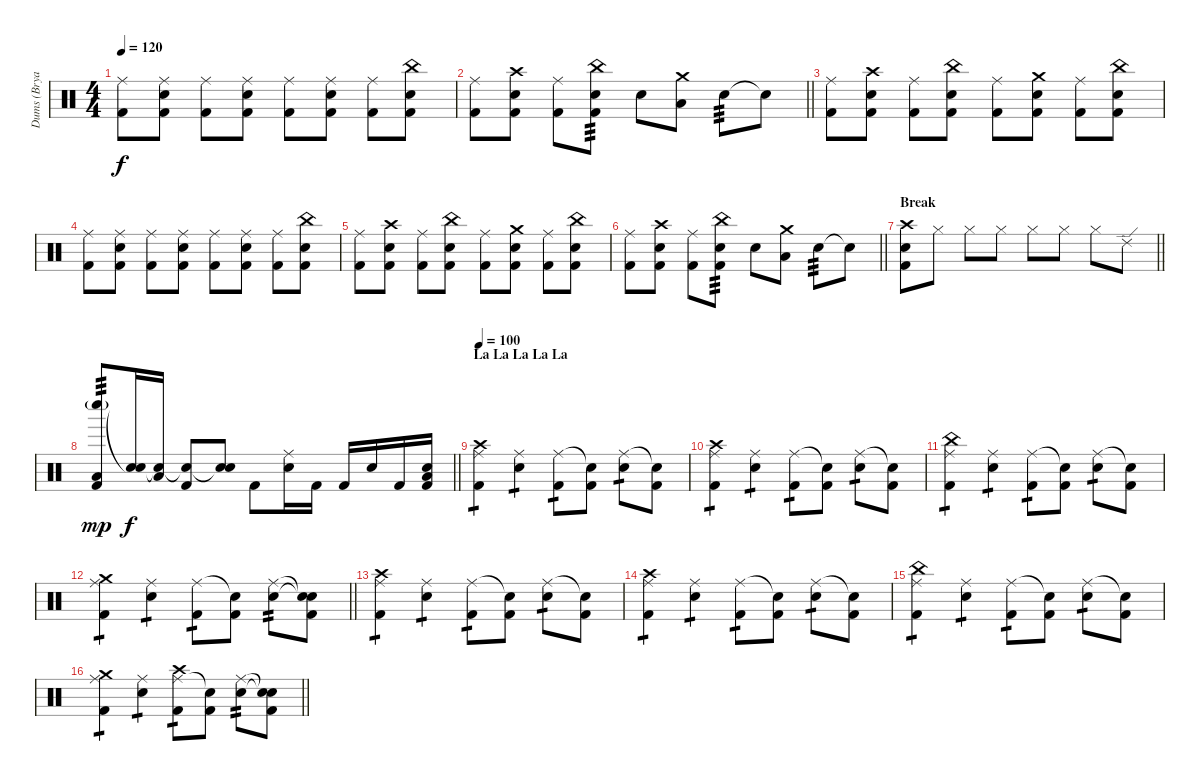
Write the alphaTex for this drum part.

\track ("Dums (Bryar)" "Dums (Brya") {instrument percussion}
\staff {score}
\articulation defaults
\ts (4 4)
\tempo 120
\clef neutral
\ks c
("Ride (middle)" "Kick (hit) 2").8{dy f} ("Ride (middle)" "Electric Snare (hit)" "Kick (hit) 2").8 ("Ride (middle)" "Kick (hit) 2").8 ("Ride (middle)" "Electric Snare (hit)" "Kick (hit) 2").8 ("Ride (middle)" "Kick (hit) 2").8 ("Ride (middle)" "Electric Snare (hit)" "Kick (hit) 2").8 ("Ride (middle)" "Kick (hit) 2").8 ("China (hit)" "Electric Snare (hit)" "Kick (hit) 2").8 |
\barLineRight lightlight
("Ride (middle)" "Kick (hit) 2").8 ("Crash high (hit)" "Electric Snare (hit)" "Kick (hit) 2").8 ("Ride (middle)" "Kick (hit) 2").8 ("China (hit)" "Electric Snare (hit)" "Kick (hit) 2").8{tp 3} "Electric Snare (hit)".8 ("Crash medium (hit)" "Low Tom (hit)").8 "Electric Snare (hit)".8{tp 3} "Electric Snare (hit)"{t}.8 |
("Ride (middle)" "Kick (hit) 2").8 ("Crash high (hit)" "Electric Snare (hit)" "Kick (hit) 2").8 ("Ride (middle)" "Kick (hit) 2").8 ("China (hit)" "Electric Snare (hit)" "Kick (hit) 2").8 ("Ride (middle)" "Kick (hit) 2").8 ("Crash medium (hit)" "Electric Snare (hit)" "Kick (hit) 2").8 ("Ride (middle)" "Kick (hit) 2").8 ("China (hit)" "Electric Snare (hit)" "Kick (hit) 2").8 |
("Ride (middle)" "Kick (hit) 2").8 ("Ride (middle)" "Electric Snare (hit)" "Kick (hit) 2").8 ("Ride (middle)" "Kick (hit) 2").8 ("Ride (middle)" "Electric Snare (hit)" "Kick (hit) 2").8 ("Ride (middle)" "Kick (hit) 2").8 ("Ride (middle)" "Electric Snare (hit)" "Kick (hit) 2").8 ("Ride (middle)" "Kick (hit) 2").8 ("China (hit)" "Electric Snare (hit)" "Kick (hit) 2").8 |
("Ride (middle)" "Kick (hit) 2").8 ("Crash high (hit)" "Electric Snare (hit)" "Kick (hit) 2").8 ("Ride (middle)" "Kick (hit) 2").8 ("China (hit)" "Electric Snare (hit)" "Kick (hit) 2").8 ("Ride (middle)" "Kick (hit) 2").8 ("Crash medium (hit)" "Electric Snare (hit)" "Kick (hit) 2").8 ("Ride (middle)" "Kick (hit) 2").8 ("China (hit)" "Electric Snare (hit)" "Kick (hit) 2").8 |
\barLineRight lightlight
("Ride (middle)" "Kick (hit) 2").8 ("Crash high (hit)" "Electric Snare (hit)" "Kick (hit) 2").8 ("Ride (middle)" "Kick (hit) 2").8 ("China (hit)" "Electric Snare (hit)" "Kick (hit) 2").8{tp 3} "Electric Snare (hit)".8 ("Crash medium (hit)" "Low Tom (hit)").8 "Electric Snare (hit)".8{tp 3} "Electric Snare (hit)"{t}.8 |
\section ("" "Break")
\barLineRight lightlight
("Crash high (hit)" "Electric Snare (hit)" "Kick (hit) 2").8 "Hi-Hat (closed)".8 "Hi-Hat (closed)".8 "Hi-Hat (closed)".8 "Hi-Hat (closed)".8 "Hi-Hat (closed)".8 "Hi-Hat (closed)".8 "Ride (edge) 2".8 |
\section ("" "")
\barLineRight lightlight
("Whistle low (hit)"{g} "Low Floor Tom (hit)" "Kick (hit) 2").8{tp 3 dy mp} ("Snare (hit)"{t} "Electric Snare (hit)").16{dy f} ("Snare (hit)"{t} "Low Tom (hit)").16 ("Snare (hit)"{t} "Kick (hit) 2").8 ("Snare (hit)"{t} "Electric Snare (hit)").8 "Kick (hit) 2".8 ("Ride (middle)" "Electric Snare (hit)").16 "Kick (hit) 2".16 "Kick (hit) 2".16 "Electric Snare (hit)".16 "Kick (hit) 2".16 ("Electric Snare (hit)" "Low Tom (hit)" "Kick (hit) 2").16 |
\section ("" "La La La La La")
\tempo 100
("Ride (middle)" "Crash high (hit)" "Kick (hit) 2").4{tp 1} ("Ride (middle)" "Electric Snare (hit)").4{tp 1} ("Ride (middle)" "Kick (hit) 2").8{tp 1} ("Snare (hit)"{t} "Kick (hit) 2").8 ("Ride (middle)" "Electric Snare (hit)").8{tp 1} ("Snare (hit)"{t} "Kick (hit) 2").8 |
("Ride (middle)" "Crash high (hit)" "Kick (hit) 2").4{tp 1} ("Ride (middle)" "Electric Snare (hit)").4{tp 1} ("Ride (middle)" "Kick (hit) 2").8{tp 1} ("Snare (hit)"{t} "Kick (hit) 2").8 ("Ride (middle)" "Electric Snare (hit)").8{tp 1} ("Snare (hit)"{t} "Kick (hit) 2").8 |
("Ride (middle)" "China (hit)" "Kick (hit) 2").4{tp 1} ("Ride (middle)" "Electric Snare (hit)").4{tp 1} ("Ride (middle)" "Kick (hit) 2").8{tp 1} ("Snare (hit)"{t} "Kick (hit) 2").8 ("Ride (middle)" "Electric Snare (hit)").8{tp 1} ("Snare (hit)"{t} "Kick (hit) 2").8 |
\barLineRight lightlight
("Ride (middle)" "Crash medium (hit)" "Kick (hit) 2").4{tp 1} ("Ride (middle)" "Electric Snare (hit)").4{tp 1} ("Ride (middle)" "Kick (hit) 2").8{tp 1} ("Snare (hit)"{t} "Kick (hit) 2").8 ("Ride (middle)" "Electric Snare (hit)").8{tp 2} ("Snare (hit)"{t} "Electric Snare (hit)"{t} "Kick (hit) 2").8 |
("Ride (middle)" "Crash high (hit)" "Kick (hit) 2").4{tp 1} ("Ride (middle)" "Electric Snare (hit)").4{tp 1} ("Ride (middle)" "Kick (hit) 2").8{tp 1} ("Snare (hit)"{t} "Kick (hit) 2").8 ("Ride (middle)" "Electric Snare (hit)").8{tp 1} ("Snare (hit)"{t} "Kick (hit) 2").8 |
("Ride (middle)" "Crash high (hit)" "Kick (hit) 2").4{tp 1} ("Ride (middle)" "Electric Snare (hit)").4{tp 1} ("Ride (middle)" "Kick (hit) 2").8{tp 1} ("Snare (hit)"{t} "Kick (hit) 2").8 ("Ride (middle)" "Electric Snare (hit)").8{tp 1} ("Snare (hit)"{t} "Kick (hit) 2").8 |
("Ride (middle)" "China (hit)" "Kick (hit) 2").4{tp 1} ("Ride (middle)" "Electric Snare (hit)").4{tp 1} ("Ride (middle)" "Kick (hit) 2").8{tp 1} ("Snare (hit)"{t} "Kick (hit) 2").8 ("Ride (middle)" "Electric Snare (hit)").8{tp 1} ("Snare (hit)"{t} "Kick (hit) 2").8 |
\barLineRight lightlight
("Ride (middle)" "Crash medium (hit)" "Kick (hit) 2").4{tp 1} ("Ride (middle)" "Electric Snare (hit)").4{tp 1} ("Ride (middle)" "Crash high (hit)" "Kick (hit) 2").8{tp 1} ("Snare (hit)"{t} "Kick (hit) 2").8 ("Ride (middle)" "Electric Snare (hit)").8{tp 2} ("Snare (hit)"{t} "Electric Snare (hit)"{t} "Kick (hit) 2").8
